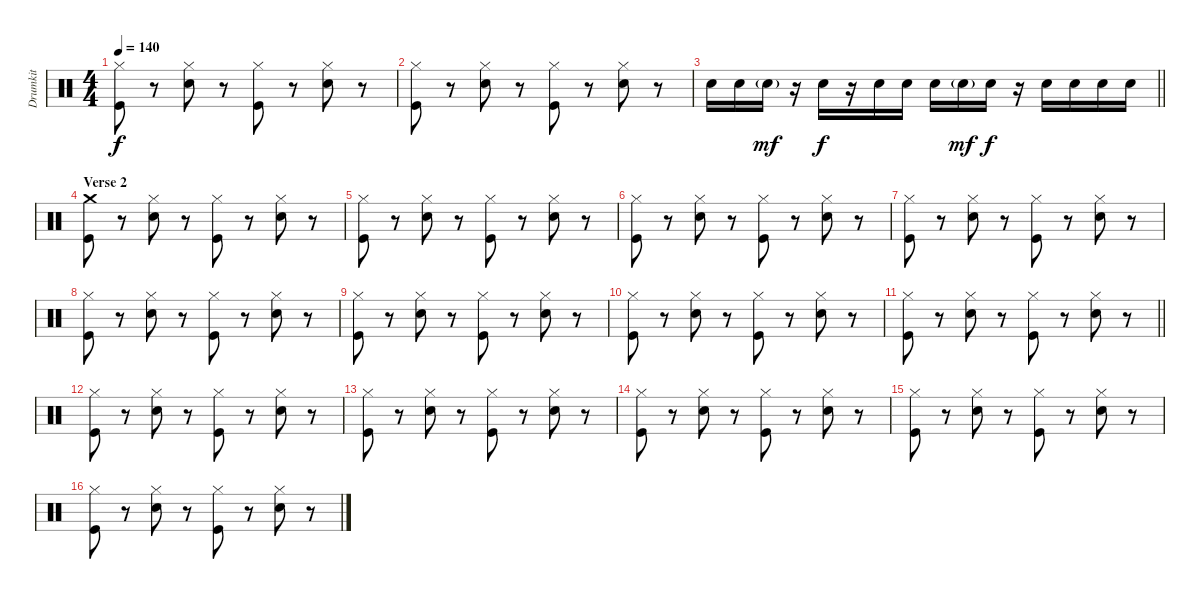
\track ("Drumkit" "Drumkit") {instrument percussion}
\staff {score}
\articulation defaults
\ts (4 4)
\tempo 140
\clef neutral
\ks c
("Hi-Hat (closed)" "Kick (hit)").8{dy f} r.8 ("Hi-Hat (closed)" "Snare (hit) 2").8 r.8 ("Hi-Hat (closed)" "Kick (hit)").8 r.8 ("Hi-Hat (closed)" "Snare (hit) 2").8 r.8 |
("Hi-Hat (closed)" "Kick (hit)").8 r.8 ("Hi-Hat (closed)" "Snare (hit) 2").8 r.8 ("Hi-Hat (closed)" "Kick (hit)").8 r.8 ("Hi-Hat (closed)" "Snare (hit) 2").8 r.8 |
\barLineRight lightlight "Snare (hit) 2".16 "Snare (hit) 2".16 "Snare (hit) 2"{g}.16{dy mf}
r.16 "Snare (hit) 2".16{dy f} r.16 "Snare (hit) 2".16 "Snare (hit) 2".16 "Snare (hit) 2".16 "Snare (hit) 2"{g}.16{dy mf} "Snare (hit) 2".16{dy f} r.16 "Snare (hit) 2".16 "Snare (hit) 2".16 "Snare (hit) 2".16 "Snare (hit) 2".16 |
\section ("" "Verse 2")
("Crash medium (hit)" "Kick (hit)").8 r.8 ("Hi-Hat (closed)" "Snare (hit) 2").8 r.8 ("Hi-Hat (closed)" "Kick (hit)").8 r.8 ("Hi-Hat (closed)" "Snare (hit) 2").8 r.8 |
("Hi-Hat (closed)" "Kick (hit)").8 r.8 ("Hi-Hat (closed)" "Snare (hit) 2").8 r.8 ("Hi-Hat (closed)" "Kick (hit)").8 r.8 ("Hi-Hat (closed)" "Snare (hit) 2").8 r.8 |
("Hi-Hat (closed)" "Kick (hit)").8 r.8 ("Hi-Hat (closed)" "Snare (hit) 2").8 r.8 ("Hi-Hat (closed)" "Kick (hit)").8 r.8 ("Hi-Hat (closed)" "Snare (hit) 2").8 r.8 |
("Hi-Hat (closed)" "Kick (hit)").8 r.8 ("Hi-Hat (closed)" "Snare (hit) 2").8 r.8 ("Hi-Hat (closed)" "Kick (hit)").8 r.8 ("Hi-Hat (closed)" "Snare (hit) 2").8 r.8 |
("Hi-Hat (closed)" "Kick (hit)").8 r.8 ("Hi-Hat (closed)" "Snare (hit) 2").8 r.8 ("Hi-Hat (closed)" "Kick (hit)").8 r.8 ("Hi-Hat (closed)" "Snare (hit) 2").8 r.8 |
("Hi-Hat (closed)" "Kick (hit)").8 r.8 ("Hi-Hat (closed)" "Snare (hit) 2").8 r.8 ("Hi-Hat (closed)" "Kick (hit)").8 r.8 ("Hi-Hat (closed)" "Snare (hit) 2").8 r.8 |
("Hi-Hat (closed)" "Kick (hit)").8 r.8 ("Hi-Hat (closed)" "Snare (hit) 2").8 r.8 ("Hi-Hat (closed)" "Kick (hit)").8 r.8 ("Hi-Hat (closed)" "Snare (hit) 2").8 r.8 |
\barLineRight lightlight
("Hi-Hat (closed)" "Kick (hit)").8 r.8 ("Hi-Hat (closed)" "Snare (hit) 2").8 r.8 ("Hi-Hat (closed)" "Kick (hit)").8 r.8 ("Hi-Hat (closed)" "Snare (hit) 2").8 r.8 |
("Hi-Hat (closed)" "Kick (hit)").8 r.8 ("Hi-Hat (closed)" "Snare (hit) 2").8 r.8 ("Hi-Hat (closed)" "Kick (hit)").8 r.8 ("Hi-Hat (closed)" "Snare (hit) 2").8 r.8 |
("Hi-Hat (closed)" "Kick (hit)").8 r.8 ("Hi-Hat (closed)" "Snare (hit) 2").8 r.8 ("Hi-Hat (closed)" "Kick (hit)").8 r.8 ("Hi-Hat (closed)" "Snare (hit) 2").8 r.8 |
("Hi-Hat (closed)" "Kick (hit)").8 r.8 ("Hi-Hat (closed)" "Snare (hit) 2").8 r.8 ("Hi-Hat (closed)" "Kick (hit)").8 r.8 ("Hi-Hat (closed)" "Snare (hit) 2").8 r.8 |
("Hi-Hat (closed)" "Kick (hit)").8 r.8 ("Hi-Hat (closed)" "Snare (hit) 2").8 r.8 ("Hi-Hat (closed)" "Kick (hit)").8 r.8 ("Hi-Hat (closed)" "Snare (hit) 2").8 r.8 |
("Hi-Hat (closed)" "Kick (hit)").8 r.8 ("Hi-Hat (closed)" "Snare (hit) 2").8 r.8 ("Hi-Hat (closed)" "Kick (hit)").8 r.8 ("Hi-Hat (closed)" "Snare (hit) 2").8 r.8
